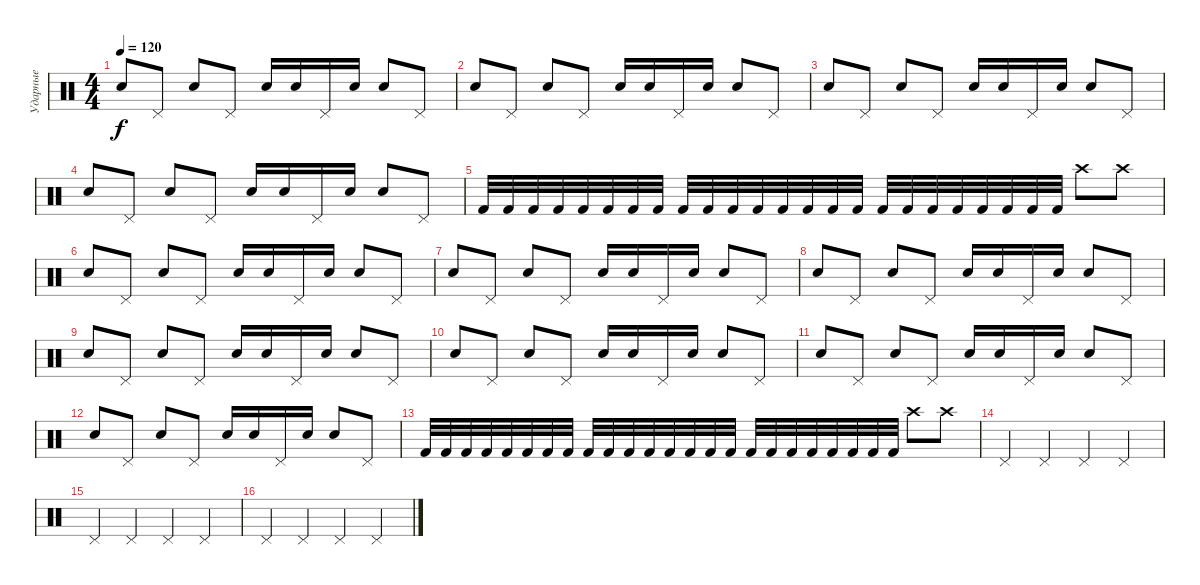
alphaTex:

\track ("Ударные" "Ударные") {instrument percussion}
\staff {score}
\articulation defaults
\ts (4 4)
\tempo 120
\clef neutral
\ks c "Snare (hit) 2".8{dy f} "Pedal Hi-Hat (hit)".8 "Snare (hit) 2".8 "Pedal Hi-Hat (hit)".8 "Snare (hit) 2".16 "Snare (hit) 2".16 "Pedal Hi-Hat (hit)".16 "Snare (hit) 2".16 "Snare (hit) 2".8 "Pedal Hi-Hat (hit)".8
|
"Snare (hit) 2".8 "Pedal Hi-Hat (hit)".8 "Snare (hit) 2".8 "Pedal Hi-Hat (hit)".8 "Snare (hit) 2".16 "Snare (hit) 2".16 "Pedal Hi-Hat (hit)".16 "Snare (hit) 2".16 "Snare (hit) 2".8 "Pedal Hi-Hat (hit)".8 |
"Snare (hit) 2".8 "Pedal Hi-Hat (hit)".8 "Snare (hit) 2".8 "Pedal Hi-Hat (hit)".8 "Snare (hit) 2".16 "Snare (hit) 2".16 "Pedal Hi-Hat (hit)".16 "Snare (hit) 2".16 "Snare (hit) 2".8 "Pedal Hi-Hat (hit)".8 |
"Snare (hit) 2".8 "Pedal Hi-Hat (hit)".8 "Snare (hit) 2".8 "Pedal Hi-Hat (hit)".8 "Snare (hit) 2".16 "Snare (hit) 2".16 "Pedal Hi-Hat (hit)".16 "Snare (hit) 2".16 "Snare (hit) 2".8 "Pedal Hi-Hat (hit)".8 |
"Kick (hit) 2".32 "Kick (hit) 2".32 "Kick (hit) 2".32 "Kick (hit) 2".32 "Kick (hit) 2".32 "Kick (hit) 2".32 "Kick (hit) 2".32 "Kick (hit) 2".32 "Kick (hit) 2".32 "Kick (hit) 2".32 "Kick (hit) 2".32 "Kick (hit) 2".32 "Kick (hit) 2".32 "Kick (hit) 2".32 "Kick (hit) 2".32 "Kick (hit) 2".32 "Kick (hit) 2".32 "Kick (hit) 2".32 "Kick (hit) 2".32 "Kick (hit) 2".32 "Kick (hit) 2".32 "Kick (hit) 2".32 "Kick (hit) 2".32 "Kick (hit) 2".32 "Crash high (hit)".8 "Crash high (hit)".8 |
"Snare (hit) 2".8 "Pedal Hi-Hat (hit)".8 "Snare (hit) 2".8 "Pedal Hi-Hat (hit)".8 "Snare (hit) 2".16 "Snare (hit) 2".16 "Pedal Hi-Hat (hit)".16 "Snare (hit) 2".16 "Snare (hit) 2".8 "Pedal Hi-Hat (hit)".8 |
"Snare (hit) 2".8 "Pedal Hi-Hat (hit)".8 "Snare (hit) 2".8 "Pedal Hi-Hat (hit)".8 "Snare (hit) 2".16 "Snare (hit) 2".16 "Pedal Hi-Hat (hit)".16 "Snare (hit) 2".16 "Snare (hit) 2".8 "Pedal Hi-Hat (hit)".8 |
"Snare (hit) 2".8 "Pedal Hi-Hat (hit)".8 "Snare (hit) 2".8 "Pedal Hi-Hat (hit)".8 "Snare (hit) 2".16 "Snare (hit) 2".16 "Pedal Hi-Hat (hit)".16 "Snare (hit) 2".16 "Snare (hit) 2".8 "Pedal Hi-Hat (hit)".8 |
"Snare (hit) 2".8 "Pedal Hi-Hat (hit)".8 "Snare (hit) 2".8 "Pedal Hi-Hat (hit)".8 "Snare (hit) 2".16 "Snare (hit) 2".16 "Pedal Hi-Hat (hit)".16 "Snare (hit) 2".16 "Snare (hit) 2".8 "Pedal Hi-Hat (hit)".8 |
"Snare (hit) 2".8 "Pedal Hi-Hat (hit)".8 "Snare (hit) 2".8 "Pedal Hi-Hat (hit)".8 "Snare (hit) 2".16 "Snare (hit) 2".16 "Pedal Hi-Hat (hit)".16 "Snare (hit) 2".16 "Snare (hit) 2".8 "Pedal Hi-Hat (hit)".8 |
"Snare (hit) 2".8 "Pedal Hi-Hat (hit)".8 "Snare (hit) 2".8 "Pedal Hi-Hat (hit)".8 "Snare (hit) 2".16 "Snare (hit) 2".16 "Pedal Hi-Hat (hit)".16 "Snare (hit) 2".16 "Snare (hit) 2".8 "Pedal Hi-Hat (hit)".8 |
"Snare (hit) 2".8 "Pedal Hi-Hat (hit)".8 "Snare (hit) 2".8 "Pedal Hi-Hat (hit)".8 "Snare (hit) 2".16 "Snare (hit) 2".16 "Pedal Hi-Hat (hit)".16 "Snare (hit) 2".16 "Snare (hit) 2".8 "Pedal Hi-Hat (hit)".8 |
"Kick (hit) 2".32 "Kick (hit) 2".32 "Kick (hit) 2".32 "Kick (hit) 2".32 "Kick (hit) 2".32 "Kick (hit) 2".32 "Kick (hit) 2".32 "Kick (hit) 2".32 "Kick (hit) 2".32 "Kick (hit) 2".32 "Kick (hit) 2".32 "Kick (hit) 2".32 "Kick (hit) 2".32 "Kick (hit) 2".32 "Kick (hit) 2".32 "Kick (hit) 2".32 "Kick (hit) 2".32 "Kick (hit) 2".32 "Kick (hit) 2".32 "Kick (hit) 2".32 "Kick (hit) 2".32 "Kick (hit) 2".32 "Kick (hit) 2".32 "Kick (hit) 2".32 "Crash high (hit)".8 "Crash high (hit)".8 |
"Pedal Hi-Hat (hit)".4 "Pedal Hi-Hat (hit)".4 "Pedal Hi-Hat (hit)".4 "Pedal Hi-Hat (hit)".4 |
"Pedal Hi-Hat (hit)".4 "Pedal Hi-Hat (hit)".4 "Pedal Hi-Hat (hit)".4 "Pedal Hi-Hat (hit)".4 |
"Pedal Hi-Hat (hit)".4 "Pedal Hi-Hat (hit)".4 "Pedal Hi-Hat (hit)".4 "Pedal Hi-Hat (hit)".4
